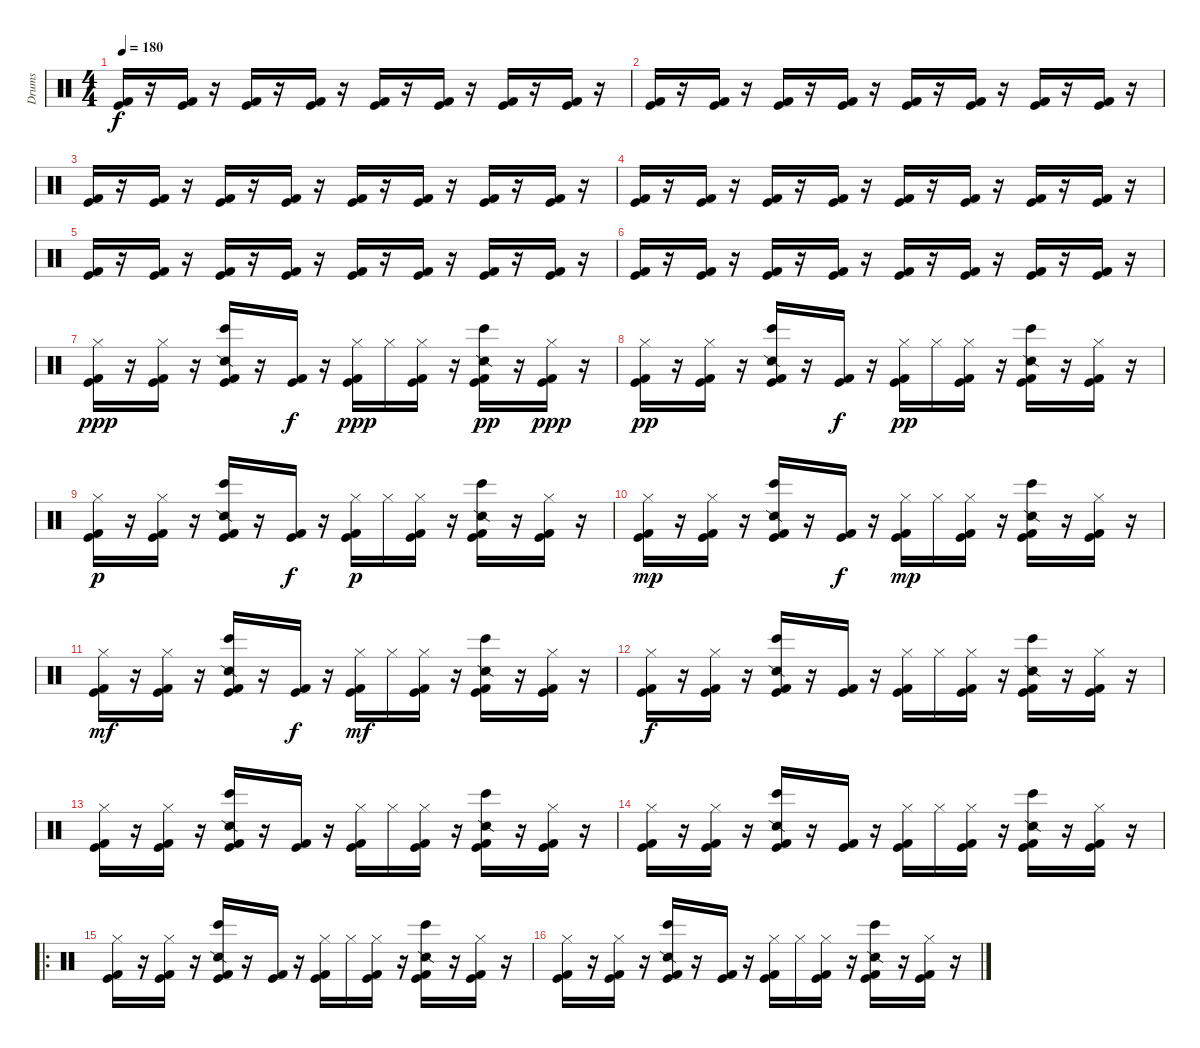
\track ("Drums" "Drums") {instrument percussion}
\staff {score}
\articulation defaults
\ts (4 4)
\tempo 180
\clef neutral
\ks c
("Kick (hit)" "Kick (hit) 2").16{dy f} r.16 ("Kick (hit)" "Kick (hit) 2").16 r.16 ("Kick (hit)" "Kick (hit) 2").16 r.16 ("Kick (hit)" "Kick (hit) 2").16 r.16 ("Kick (hit)" "Kick (hit) 2").16 r.16 ("Kick (hit)" "Kick (hit) 2").16 r.16 ("Kick (hit)" "Kick (hit) 2").16 r.16 ("Kick (hit)" "Kick (hit) 2").16 r.16 |
("Kick (hit)" "Kick (hit) 2").16 r.16 ("Kick (hit)" "Kick (hit) 2").16 r.16 ("Kick (hit)" "Kick (hit) 2").16 r.16 ("Kick (hit)" "Kick (hit) 2").16 r.16 ("Kick (hit)" "Kick (hit) 2").16 r.16 ("Kick (hit)" "Kick (hit) 2").16 r.16 ("Kick (hit)" "Kick (hit) 2").16 r.16 ("Kick (hit)" "Kick (hit) 2").16 r.16 |
("Kick (hit)" "Kick (hit) 2").16 r.16 ("Kick (hit)" "Kick (hit) 2").16 r.16 ("Kick (hit)" "Kick (hit) 2").16 r.16 ("Kick (hit)" "Kick (hit) 2").16 r.16 ("Kick (hit)" "Kick (hit) 2").16 r.16 ("Kick (hit)" "Kick (hit) 2").16 r.16 ("Kick (hit)" "Kick (hit) 2").16 r.16 ("Kick (hit)" "Kick (hit) 2").16 r.16 |
("Kick (hit)" "Kick (hit) 2").16 r.16 ("Kick (hit)" "Kick (hit) 2").16 r.16 ("Kick (hit)" "Kick (hit) 2").16 r.16 ("Kick (hit)" "Kick (hit) 2").16 r.16 ("Kick (hit)" "Kick (hit) 2").16 r.16 ("Kick (hit)" "Kick (hit) 2").16 r.16 ("Kick (hit)" "Kick (hit) 2").16 r.16 ("Kick (hit)" "Kick (hit) 2").16 r.16 |
("Kick (hit)" "Kick (hit) 2").16 r.16 ("Kick (hit)" "Kick (hit) 2").16 r.16 ("Kick (hit)" "Kick (hit) 2").16 r.16 ("Kick (hit)" "Kick (hit) 2").16 r.16 ("Kick (hit)" "Kick (hit) 2").16 r.16 ("Kick (hit)" "Kick (hit) 2").16 r.16 ("Kick (hit)" "Kick (hit) 2").16 r.16 ("Kick (hit)" "Kick (hit) 2").16 r.16 |
("Kick (hit)" "Kick (hit) 2").16 r.16 ("Kick (hit)" "Kick (hit) 2").16 r.16 ("Kick (hit)" "Kick (hit) 2").16 r.16 ("Kick (hit)" "Kick (hit) 2").16 r.16 ("Kick (hit)" "Kick (hit) 2").16 r.16 ("Kick (hit)" "Kick (hit) 2").16 r.16 ("Kick (hit)" "Kick (hit) 2").16 r.16 ("Kick (hit)" "Kick (hit) 2").16 r.16 |
("Hi-Hat (closed)" "Kick (hit)" "Kick (hit) 2").16{dy ppp} r.16 ("Hi-Hat (closed)" "Kick (hit)" "Kick (hit) 2").16 r.16 ("Bongo High (hit)" "Snare (side stick) 2" "Kick (hit)" "Kick (hit) 2").16 r.16 ("Kick (hit)" "Kick (hit) 2").16{dy f} r.16 ("Hi-Hat (closed)" "Kick (hit)" "Kick (hit) 2").16{dy ppp} "Hi-Hat (closed)".16 ("Hi-Hat (closed)" "Kick (hit)" "Kick (hit) 2").16 r.16 ("Bongo High (hit)" "Snare (side stick) 2" "Kick (hit)" "Kick (hit) 2").16{dy pp} r.16 ("Hi-Hat (closed)" "Kick (hit)" "Kick (hit) 2").16{dy ppp} r.16 |
("Hi-Hat (closed)" "Kick (hit)" "Kick (hit) 2").16{dy pp} r.16 ("Hi-Hat (closed)" "Kick (hit)" "Kick (hit) 2").16 r.16 ("Bongo High (hit)" "Snare (side stick) 2" "Kick (hit)" "Kick (hit) 2").16 r.16 ("Kick (hit)" "Kick (hit) 2").16{dy f} r.16 ("Hi-Hat (closed)" "Kick (hit)" "Kick (hit) 2").16{dy pp} "Hi-Hat (closed)".16 ("Hi-Hat (closed)" "Kick (hit)" "Kick (hit) 2").16 r.16 ("Bongo High (hit)" "Snare (side stick) 2" "Kick (hit)" "Kick (hit) 2").16 r.16 ("Hi-Hat (closed)" "Kick (hit)" "Kick (hit) 2").16 r.16 |
("Hi-Hat (closed)" "Kick (hit)" "Kick (hit) 2").16{dy p} r.16 ("Hi-Hat (closed)" "Kick (hit)" "Kick (hit) 2").16 r.16 ("Bongo High (hit)" "Snare (side stick) 2" "Kick (hit)" "Kick (hit) 2").16 r.16 ("Kick (hit)" "Kick (hit) 2").16{dy f} r.16 ("Hi-Hat (closed)" "Kick (hit)" "Kick (hit) 2").16{dy p} "Hi-Hat (closed)".16 ("Hi-Hat (closed)" "Kick (hit)" "Kick (hit) 2").16 r.16 ("Bongo High (hit)" "Snare (side stick) 2" "Kick (hit)" "Kick (hit) 2").16 r.16 ("Hi-Hat (closed)" "Kick (hit)" "Kick (hit) 2").16 r.16 |
("Hi-Hat (closed)" "Kick (hit)" "Kick (hit) 2").16{dy mp} r.16 ("Hi-Hat (closed)" "Kick (hit)" "Kick (hit) 2").16 r.16 ("Bongo High (hit)" "Snare (side stick) 2" "Kick (hit)" "Kick (hit) 2").16 r.16 ("Kick (hit)" "Kick (hit) 2").16{dy f} r.16 ("Hi-Hat (closed)" "Kick (hit)" "Kick (hit) 2").16{dy mp} "Hi-Hat (closed)".16 ("Hi-Hat (closed)" "Kick (hit)" "Kick (hit) 2").16 r.16 ("Bongo High (hit)" "Snare (side stick) 2" "Kick (hit)" "Kick (hit) 2").16 r.16 ("Hi-Hat (closed)" "Kick (hit)" "Kick (hit) 2").16 r.16 |
("Hi-Hat (closed)" "Kick (hit)" "Kick (hit) 2").16{dy mf} r.16 ("Hi-Hat (closed)" "Kick (hit)" "Kick (hit) 2").16 r.16 ("Bongo High (hit)" "Snare (side stick) 2" "Kick (hit)" "Kick (hit) 2").16 r.16 ("Kick (hit)" "Kick (hit) 2").16{dy f} r.16 ("Hi-Hat (closed)" "Kick (hit)" "Kick (hit) 2").16{dy mf} "Hi-Hat (closed)".16 ("Hi-Hat (closed)" "Kick (hit)" "Kick (hit) 2").16 r.16 ("Bongo High (hit)" "Snare (side stick) 2" "Kick (hit)" "Kick (hit) 2").16 r.16 ("Hi-Hat (closed)" "Kick (hit)" "Kick (hit) 2").16 r.16 |
("Hi-Hat (closed)" "Kick (hit)" "Kick (hit) 2").16{dy f} r.16 ("Hi-Hat (closed)" "Kick (hit)" "Kick (hit) 2").16 r.16 ("Bongo High (hit)" "Snare (side stick) 2" "Kick (hit)" "Kick (hit) 2").16 r.16 ("Kick (hit)" "Kick (hit) 2").16 r.16 ("Hi-Hat (closed)" "Kick (hit)" "Kick (hit) 2").16 "Hi-Hat (closed)".16 ("Hi-Hat (closed)" "Kick (hit)" "Kick (hit) 2").16 r.16 ("Bongo High (hit)" "Snare (side stick) 2" "Kick (hit)" "Kick (hit) 2").16 r.16 ("Hi-Hat (closed)" "Kick (hit)" "Kick (hit) 2").16 r.16 |
("Hi-Hat (closed)" "Kick (hit)" "Kick (hit) 2").16 r.16 ("Hi-Hat (closed)" "Kick (hit)" "Kick (hit) 2").16 r.16 ("Bongo High (hit)" "Snare (side stick) 2" "Kick (hit)" "Kick (hit) 2").16 r.16 ("Kick (hit)" "Kick (hit) 2").16 r.16 ("Hi-Hat (closed)" "Kick (hit)" "Kick (hit) 2").16 "Hi-Hat (closed)".16 ("Hi-Hat (closed)" "Kick (hit)" "Kick (hit) 2").16 r.16 ("Bongo High (hit)" "Snare (side stick) 2" "Kick (hit)" "Kick (hit) 2").16 r.16 ("Hi-Hat (closed)" "Kick (hit)" "Kick (hit) 2").16 r.16 |
("Hi-Hat (closed)" "Kick (hit)" "Kick (hit) 2").16 r.16 ("Hi-Hat (closed)" "Kick (hit)" "Kick (hit) 2").16 r.16 ("Bongo High (hit)" "Snare (side stick) 2" "Kick (hit)" "Kick (hit) 2").16 r.16 ("Kick (hit)" "Kick (hit) 2").16 r.16 ("Hi-Hat (closed)" "Kick (hit)" "Kick (hit) 2").16 "Hi-Hat (closed)".16 ("Hi-Hat (closed)" "Kick (hit)" "Kick (hit) 2").16 r.16 ("Bongo High (hit)" "Snare (side stick) 2" "Kick (hit)" "Kick (hit) 2").16 r.16 ("Hi-Hat (closed)" "Kick (hit)" "Kick (hit) 2").16 r.16 |
\ro
("Hi-Hat (closed)" "Kick (hit)" "Kick (hit) 2").16 r.16 ("Hi-Hat (closed)" "Kick (hit)" "Kick (hit) 2").16 r.16 ("Bongo High (hit)" "Snare (side stick) 2" "Kick (hit)" "Kick (hit) 2").16 r.16 ("Kick (hit)" "Kick (hit) 2").16 r.16 ("Hi-Hat (closed)" "Kick (hit)" "Kick (hit) 2").16 "Hi-Hat (closed)".16 ("Hi-Hat (closed)" "Kick (hit)" "Kick (hit) 2").16 r.16 ("Bongo High (hit)" "Snare (side stick) 2" "Kick (hit)" "Kick (hit) 2").16 r.16 ("Hi-Hat (closed)" "Kick (hit)" "Kick (hit) 2").16 r.16 |
("Hi-Hat (closed)" "Kick (hit)" "Kick (hit) 2").16 r.16 ("Hi-Hat (closed)" "Kick (hit)" "Kick (hit) 2").16 r.16 ("Bongo High (hit)" "Snare (side stick) 2" "Kick (hit)" "Kick (hit) 2").16 r.16 ("Kick (hit)" "Kick (hit) 2").16 r.16 ("Hi-Hat (closed)" "Kick (hit)" "Kick (hit) 2").16 "Hi-Hat (closed)".16 ("Hi-Hat (closed)" "Kick (hit)" "Kick (hit) 2").16 r.16 ("Bongo High (hit)" "Snare (side stick) 2" "Kick (hit)" "Kick (hit) 2").16 r.16 ("Hi-Hat (closed)" "Kick (hit)" "Kick (hit) 2").16 r.16
